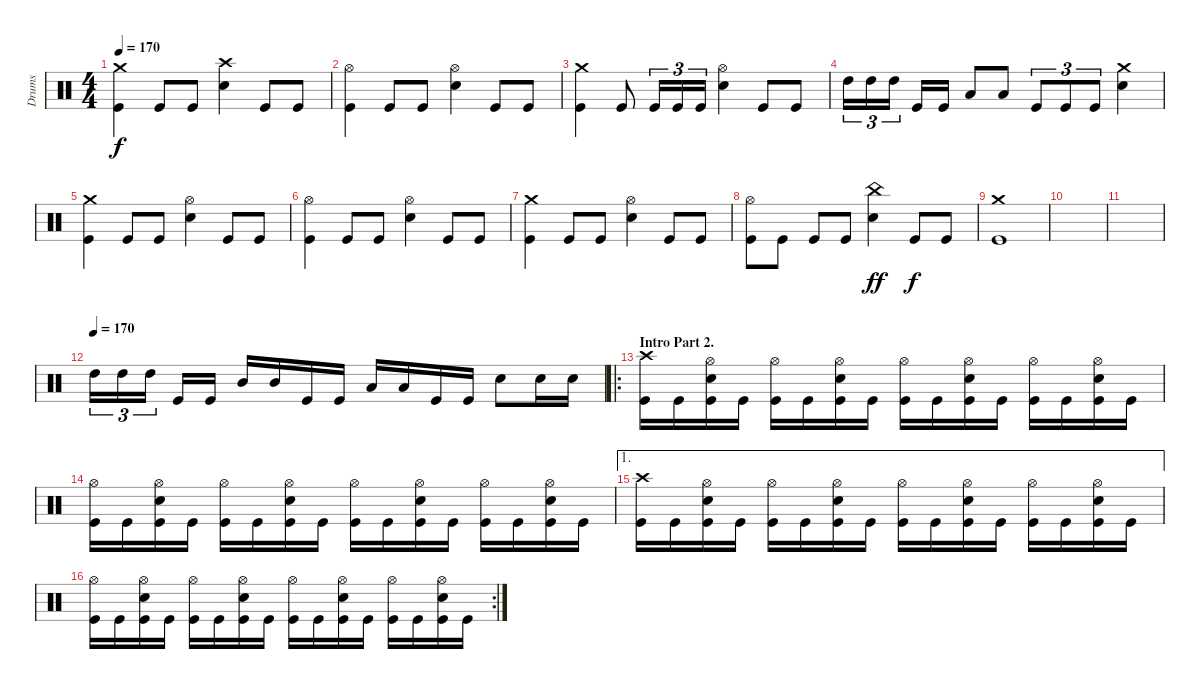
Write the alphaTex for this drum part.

\track ("Drums" "Drums") {instrument percussion}
\staff {score}
\articulation defaults
\ts (4 4)
\tempo 170
\clef neutral
\ks c
("Crash medium (hit)" "Kick (hit)").4{dy f} "Kick (hit)".8 "Kick (hit)".8 ("Crash high (hit)" "Snare (hit) 2").4 "Kick (hit)".8 "Kick (hit)".8 |
("Hi-Hat (open)" "Kick (hit)").4 "Kick (hit)".8 "Kick (hit)".8 ("Hi-Hat (open)" "Snare (hit) 2").4 "Kick (hit)".8 "Kick (hit)".8 |
("Crash medium (hit)" "Kick (hit)").4 "Kick (hit)".8 "Kick (hit)".16{tu (3 2)} "Kick (hit)".16{tu (3 2)} "Kick (hit)".16{tu (3 2)} ("Hi-Hat (open)" "Snare (hit) 2").4 "Kick (hit)".8 "Kick (hit)".8 |
"High Tom (hit)".16{tu (3 2)} "High Tom (hit)".16{tu (3 2)} "High Tom (hit)".16{tu (3 2)} "Kick (hit)".16 "Kick (hit)".16 "Low Tom (hit)".8 "Low Tom (hit)".8 "Kick (hit)".8{tu (3 2)} "Kick (hit)".8{tu (3 2)} "Kick (hit)".8{tu (3 2)} ("Crash medium (hit)" "Snare (hit) 2").4 |
("Crash medium (hit)" "Kick (hit)").4 "Kick (hit)".8 "Kick (hit)".8 ("Hi-Hat (open)" "Snare (hit) 2").4 "Kick (hit)".8 "Kick (hit)".8 |
("Hi-Hat (open)" "Kick (hit)").4 "Kick (hit)".8 "Kick (hit)".8 ("Hi-Hat (open)" "Snare (hit) 2").4 "Kick (hit)".8 "Kick (hit)".8 |
("Crash medium (hit)" "Kick (hit)").4 "Kick (hit)".8 "Kick (hit)".8 ("Hi-Hat (open)" "Snare (hit) 2").4 "Kick (hit)".8 "Kick (hit)".8 |
("Hi-Hat (open)" "Kick (hit)").8 "Kick (hit)".8 "Kick (hit)".8 "Kick (hit)".8 ("China (hit)" "Snare (hit) 2").4{dy ff} "Kick (hit)".8{dy f} "Kick (hit)".8 |
("Crash medium (hit)" "Kick (hit)").1 |
|
|
\tempo (170)
"High Tom (hit)".16{tu (3 2)} "High Tom (hit)".16{tu (3 2)} "High Tom (hit)".16{tu (3 2)} "Kick (hit)".16 "Kick (hit)".16 "Mid Tom (hit)".16 "Mid Tom (hit)".16 "Kick (hit)".16 "Kick (hit)".16 "Low Tom (hit)".16 "Low Tom (hit)".16 "Kick (hit)".16 "Kick (hit)".16 "Snare (hit) 2".8 "Snare (hit) 2".16 "Snare (hit) 2".16 |
\ro
\section ("" "Intro Part 2.")
("Crash high (hit)" "Kick (hit)").16 "Kick (hit)".16 ("Hi-Hat (open)" "Snare (hit) 2" "Kick (hit)").16 "Kick (hit)".16 ("Hi-Hat (open)" "Kick (hit)").16 "Kick (hit)".16 ("Hi-Hat (open)" "Snare (hit) 2" "Kick (hit)").16 "Kick (hit)".16 ("Hi-Hat (open)" "Kick (hit)").16 "Kick (hit)".16 ("Hi-Hat (open)" "Snare (hit) 2" "Kick (hit)").16 "Kick (hit)".16 ("Hi-Hat (open)" "Kick (hit)").16 "Kick (hit)".16 ("Hi-Hat (open)" "Snare (hit) 2" "Kick (hit)").16 "Kick (hit)".16 |
("Hi-Hat (open)" "Kick (hit)").16 "Kick (hit)".16 ("Hi-Hat (open)" "Snare (hit) 2" "Kick (hit)").16 "Kick (hit)".16 ("Hi-Hat (open)" "Kick (hit)").16 "Kick (hit)".16 ("Hi-Hat (open)" "Snare (hit) 2" "Kick (hit)").16 "Kick (hit)".16 ("Hi-Hat (open)" "Kick (hit)").16 "Kick (hit)".16 ("Hi-Hat (open)" "Snare (hit) 2" "Kick (hit)").16 "Kick (hit)".16 ("Hi-Hat (open)" "Kick (hit)").16 "Kick (hit)".16 ("Hi-Hat (open)" "Snare (hit) 2" "Kick (hit)").16 "Kick (hit)".16 |
\ae 1
("Crash high (hit)" "Kick (hit)").16 "Kick (hit)".16 ("Hi-Hat (open)" "Snare (hit) 2" "Kick (hit)").16 "Kick (hit)".16 ("Hi-Hat (open)" "Kick (hit)").16 "Kick (hit)".16 ("Hi-Hat (open)" "Snare (hit) 2" "Kick (hit)").16 "Kick (hit)".16 ("Hi-Hat (open)" "Kick (hit)").16 "Kick (hit)".16 ("Hi-Hat (open)" "Snare (hit) 2" "Kick (hit)").16 "Kick (hit)".16 ("Hi-Hat (open)" "Kick (hit)").16 "Kick (hit)".16 ("Hi-Hat (open)" "Snare (hit) 2" "Kick (hit)").16 "Kick (hit)".16 |
\rc 2
("Hi-Hat (open)" "Kick (hit)").16 "Kick (hit)".16 ("Hi-Hat (open)" "Snare (hit) 2" "Kick (hit)").16 "Kick (hit)".16 ("Hi-Hat (open)" "Kick (hit)").16 "Kick (hit)".16 ("Hi-Hat (open)" "Snare (hit) 2" "Kick (hit)").16 "Kick (hit)".16 ("Hi-Hat (open)" "Kick (hit)").16 "Kick (hit)".16 ("Hi-Hat (open)" "Snare (hit) 2" "Kick (hit)").16 "Kick (hit)".16 ("Hi-Hat (open)" "Kick (hit)").16 "Kick (hit)".16 ("Hi-Hat (open)" "Snare (hit) 2" "Kick (hit)").16 "Kick (hit)".16
